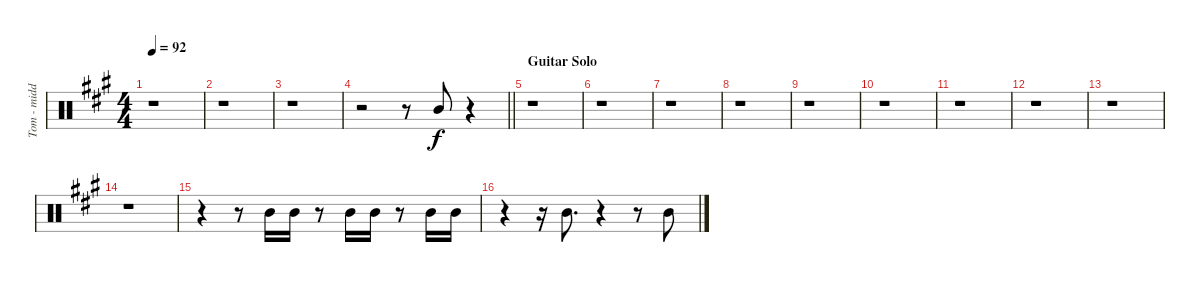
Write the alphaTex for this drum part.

\track ("Tom - middle" "Tom - midd") {instrument percussion}
\staff {score}
\articulation defaults
\ts (4 4)
\tempo 92
\clef neutral
\ks f#minor
r.1{dy f} |
r.1 |
r.1 |
\barLineRight lightlight
r.2 r.8 "Mid Tom (hit)".8{beam Up} r.4 |
\section ("" "Guitar Solo")
r.1 |
r.1 |
r.1 |
r.1 |
r.1 |
r.1 |
r.1 |
r.1 |
r.1 |
r.1 |
r.4{volume 11} r.8 "Mid Tom (hit)".16 "Mid Tom (hit)".16 r.8 "Mid Tom (hit)".16 "Mid Tom (hit)".16 r.8 "Mid Tom (hit)".16 "Mid Tom (hit)".16 |
r.4 r.16 "Mid Tom (hit)".8{d} r.4 r.8 "Mid Tom (hit)".8
